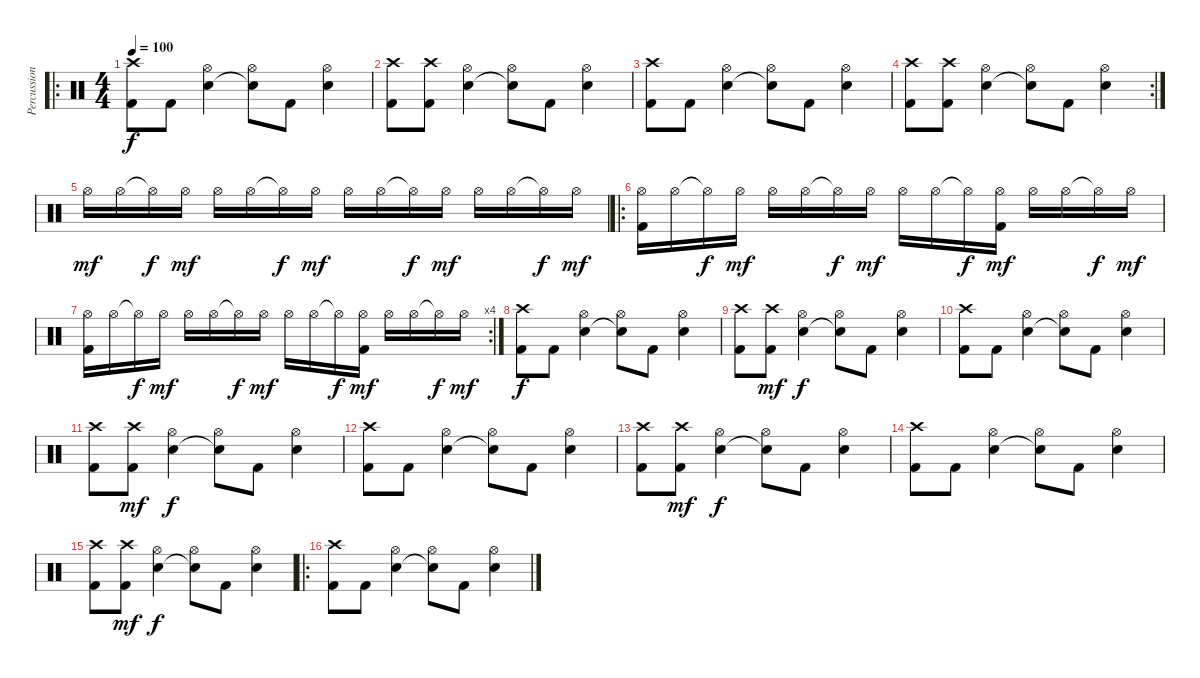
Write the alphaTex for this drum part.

\track ("Percussion" "Percussion") {instrument percussion}
\staff {score}
\articulation defaults
\ro
\ts (4 4)
\tempo 100
\clef neutral
\ks c
("Crash high (hit)" "Kick (hit) 2").8{dy f} "Kick (hit) 2".8 ("Hi-Hat (open)" "Snare (hit) 2").4 ("Hi-Hat (open)" "Snare (hit) 2"{t}).8 "Kick (hit) 2".8 ("Hi-Hat (open)" "Snare (hit) 2").4 |
("Crash high (hit)" "Kick (hit) 2").8 ("Crash high (hit)" "Kick (hit) 2").8 ("Hi-Hat (open)" "Snare (hit) 2").4 ("Hi-Hat (open)" "Snare (hit) 2"{t}).8 "Kick (hit) 2".8 ("Hi-Hat (open)" "Snare (hit) 2").4 |
("Crash high (hit)" "Kick (hit) 2").8 "Kick (hit) 2".8 ("Hi-Hat (open)" "Snare (hit) 2").4 ("Hi-Hat (open)" "Snare (hit) 2"{t}).8 "Kick (hit) 2".8 ("Hi-Hat (open)" "Snare (hit) 2").4 |
\rc 2
("Crash high (hit)" "Kick (hit) 2").8 ("Crash high (hit)" "Kick (hit) 2").8 ("Hi-Hat (open)" "Snare (hit) 2").4 ("Hi-Hat (open)" "Snare (hit) 2"{t}).8 "Kick (hit) 2".8 ("Hi-Hat (open)" "Snare (hit) 2").4 |
"Hi-Hat (open)".16{dy mf} "Hi-Hat (open)".16 "Hi-Hat (open)"{t}.16{dy f} "Hi-Hat (open)".16{dy mf} "Hi-Hat (open)".16 "Hi-Hat (open)".16 "Hi-Hat (open)"{t}.16{dy f} "Hi-Hat (open)".16{dy mf} "Hi-Hat (open)".16 "Hi-Hat (open)".16 "Hi-Hat (open)"{t}.16{dy f} "Hi-Hat (open)".16{dy mf} "Hi-Hat (open)".16 "Hi-Hat (open)".16 "Hi-Hat (open)"{t}.16{dy f} "Hi-Hat (open)".16{dy mf} |
\ro
("Hi-Hat (open)" "Kick (hit) 2").16 "Hi-Hat (open)".16 "Hi-Hat (open)"{t}.16{dy f} "Hi-Hat (open)".16{dy mf} "Hi-Hat (open)".16 "Hi-Hat (open)".16 "Hi-Hat (open)"{t}.16{dy f} "Hi-Hat (open)".16{dy mf} "Hi-Hat (open)".16 "Hi-Hat (open)".16 "Hi-Hat (open)"{t}.16{dy f} ("Hi-Hat (open)" "Kick (hit) 2").16{dy mf} "Hi-Hat (open)".16 "Hi-Hat (open)".16 "Hi-Hat (open)"{t}.16{dy f} "Hi-Hat (open)".16{dy mf} |
\rc 4
("Hi-Hat (open)" "Kick (hit) 2").16 "Hi-Hat (open)".16 "Hi-Hat (open)"{t}.16{dy f} "Hi-Hat (open)".16{dy mf} "Hi-Hat (open)".16 "Hi-Hat (open)".16 "Hi-Hat (open)"{t}.16{dy f} "Hi-Hat (open)".16{dy mf} "Hi-Hat (open)".16 "Hi-Hat (open)".16 "Hi-Hat (open)"{t}.16{dy f} ("Hi-Hat (open)" "Kick (hit) 2").16{dy mf} "Hi-Hat (open)".16 "Hi-Hat (open)".16 "Hi-Hat (open)"{t}.16{dy f} "Hi-Hat (open)".16{dy mf} |
("Crash high (hit)" "Kick (hit) 2").8{dy f} "Kick (hit) 2".8 ("Hi-Hat (open)" "Snare (hit) 2").4 ("Hi-Hat (open)" "Snare (hit) 2"{t}).8 "Kick (hit) 2".8 ("Hi-Hat (open)" "Snare (hit) 2").4 |
("Crash high (hit)" "Kick (hit) 2").8 ("Crash high (hit)" "Kick (hit) 2").8{dy mf} ("Hi-Hat (open)" "Snare (hit) 2").4{dy f} ("Hi-Hat (open)" "Snare (hit) 2"{t}).8 "Kick (hit) 2".8 ("Hi-Hat (open)" "Snare (hit) 2").4 |
("Crash high (hit)" "Kick (hit) 2").8 "Kick (hit) 2".8 ("Hi-Hat (open)" "Snare (hit) 2").4 ("Hi-Hat (open)" "Snare (hit) 2"{t}).8 "Kick (hit) 2".8 ("Hi-Hat (open)" "Snare (hit) 2").4 |
("Crash high (hit)" "Kick (hit) 2").8 ("Crash high (hit)" "Kick (hit) 2").8{dy mf} ("Hi-Hat (open)" "Snare (hit) 2").4{dy f} ("Hi-Hat (open)" "Snare (hit) 2"{t}).8 "Kick (hit) 2".8 ("Hi-Hat (open)" "Snare (hit) 2").4 |
("Crash high (hit)" "Kick (hit) 2").8 "Kick (hit) 2".8 ("Hi-Hat (open)" "Snare (hit) 2").4 ("Hi-Hat (open)" "Snare (hit) 2"{t}).8 "Kick (hit) 2".8 ("Hi-Hat (open)" "Snare (hit) 2").4 |
("Crash high (hit)" "Kick (hit) 2").8 ("Crash high (hit)" "Kick (hit) 2").8{dy mf} ("Hi-Hat (open)" "Snare (hit) 2").4{dy f} ("Hi-Hat (open)" "Snare (hit) 2"{t}).8 "Kick (hit) 2".8 ("Hi-Hat (open)" "Snare (hit) 2").4 |
("Crash high (hit)" "Kick (hit) 2").8 "Kick (hit) 2".8 ("Hi-Hat (open)" "Snare (hit) 2").4 ("Hi-Hat (open)" "Snare (hit) 2"{t}).8 "Kick (hit) 2".8 ("Hi-Hat (open)" "Snare (hit) 2").4 |
("Crash high (hit)" "Kick (hit) 2").8 ("Crash high (hit)" "Kick (hit) 2").8{dy mf} ("Hi-Hat (open)" "Snare (hit) 2").4{dy f} ("Hi-Hat (open)" "Snare (hit) 2"{t}).8 "Kick (hit) 2".8 ("Hi-Hat (open)" "Snare (hit) 2").4 |
\ro
("Crash high (hit)" "Kick (hit) 2").8 "Kick (hit) 2".8 ("Hi-Hat (open)" "Snare (hit) 2").4 ("Hi-Hat (open)" "Snare (hit) 2"{t}).8 "Kick (hit) 2".8 ("Hi-Hat (open)" "Snare (hit) 2").4
